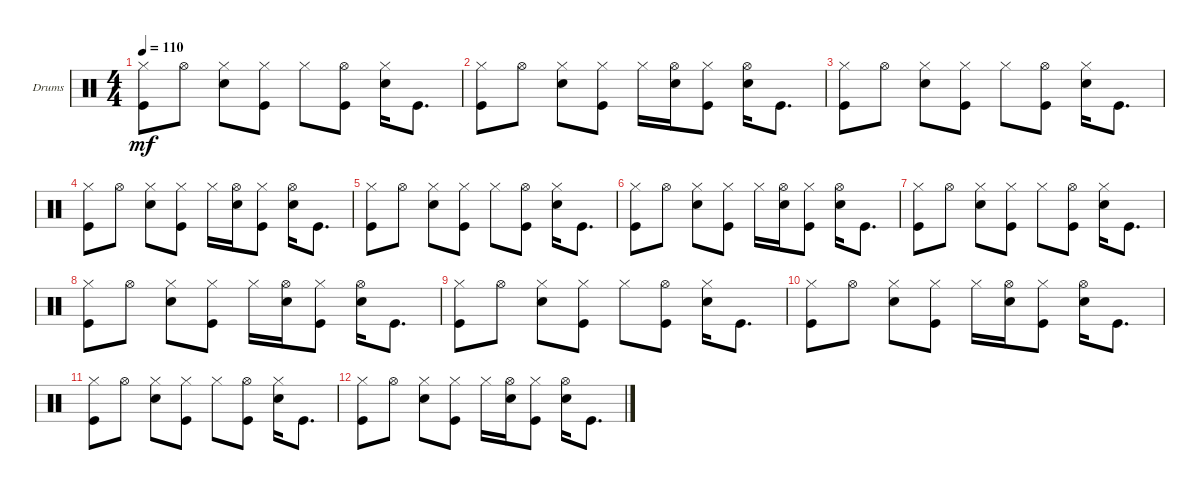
\defaultSystemsLayout 4
\bracketExtendMode groupsimilarinstruments
\firstSystemTrackNameOrientation horizontal
\otherSystemsTrackNameOrientation horizontal
\track ("Drumkit" "Drums") {instrument percussion}
\staff {score}
\articulation defaults
\ts (4 4)
\tempo 110
\clef neutral
\scale
0.643312
\ks c
("Kick (hit)" "Hi-Hat (closed)").8{dy mf} "Hi-Hat (open)".8 ("Hi-Hat (closed)" "Snare (hit) 2").8 ("Hi-Hat (closed)" "Kick (hit)").8 "Hi-Hat (closed)".8 ("Hi-Hat (open)" "Kick (hit)").8 ("Hi-Hat (closed)" "Snare (hit) 2").16 "Kick (hit)".8{d} |
\scale
0.356688 ("Kick (hit)" "Hi-Hat (closed)").8 "Hi-Hat (open)".8 ("Hi-Hat (closed)" "Snare (hit) 2").8 ("Hi-Hat (closed)" "Kick (hit)").8 "Hi-Hat (closed)".16 ("Hi-Hat (open)" "Snare (hit) 2").16 ("Hi-Hat (closed)" "Kick (hit)").8 ("Hi-Hat (open)" "Snare (hit) 2").16 "Kick (hit)".8{d} |
("Kick (hit)" "Hi-Hat (closed)").8 "Hi-Hat (open)".8 ("Hi-Hat (closed)" "Snare (hit) 2").8 ("Hi-Hat (closed)" "Kick (hit)").8 "Hi-Hat (closed)".8 ("Hi-Hat (open)" "Kick (hit)").8 ("Hi-Hat (closed)" "Snare (hit) 2").16 "Kick (hit)".8{d} |
("Kick (hit)" "Hi-Hat (closed)").8 "Hi-Hat (open)".8 ("Hi-Hat (closed)" "Snare (hit) 2").8 ("Hi-Hat (closed)" "Kick (hit)").8 "Hi-Hat (closed)".16 ("Hi-Hat (open)" "Snare (hit) 2").16 ("Hi-Hat (closed)" "Kick (hit)").8 ("Hi-Hat (open)" "Snare (hit) 2").16 "Kick (hit)".8{d} |
("Kick (hit)" "Hi-Hat (closed)").8 "Hi-Hat (open)".8 ("Hi-Hat (closed)" "Snare (hit) 2").8 ("Hi-Hat (closed)" "Kick (hit)").8 "Hi-Hat (closed)".8 ("Hi-Hat (open)" "Kick (hit)").8 ("Hi-Hat (closed)" "Snare (hit) 2").16 "Kick (hit)".8{d} |
("Kick (hit)" "Hi-Hat (closed)").8 "Hi-Hat (open)".8 ("Hi-Hat (closed)" "Snare (hit) 2").8 ("Hi-Hat (closed)" "Kick (hit)").8 "Hi-Hat (closed)".16 ("Hi-Hat (open)" "Snare (hit) 2").16 ("Hi-Hat (closed)" "Kick (hit)").8 ("Hi-Hat (open)" "Snare (hit) 2").16 "Kick (hit)".8{d} |
("Kick (hit)" "Hi-Hat (closed)").8 "Hi-Hat (open)".8 ("Hi-Hat (closed)" "Snare (hit) 2").8 ("Hi-Hat (closed)" "Kick (hit)").8 "Hi-Hat (closed)".8 ("Hi-Hat (open)" "Kick (hit)").8 ("Hi-Hat (closed)" "Snare (hit) 2").16 "Kick (hit)".8{d} |
("Kick (hit)" "Hi-Hat (closed)").8 "Hi-Hat (open)".8 ("Hi-Hat (closed)" "Snare (hit) 2").8 ("Hi-Hat (closed)" "Kick (hit)").8 "Hi-Hat (closed)".16 ("Hi-Hat (open)" "Snare (hit) 2").16 ("Hi-Hat (closed)" "Kick (hit)").8 ("Hi-Hat (open)" "Snare (hit) 2").16 "Kick (hit)".8{d} |
("Kick (hit)" "Hi-Hat (closed)").8 "Hi-Hat (open)".8 ("Hi-Hat (closed)" "Snare (hit) 2").8 ("Hi-Hat (closed)" "Kick (hit)").8 "Hi-Hat (closed)".8 ("Hi-Hat (open)" "Kick (hit)").8 ("Hi-Hat (closed)" "Snare (hit) 2").16 "Kick (hit)".8{d} |
("Kick (hit)" "Hi-Hat (closed)").8 "Hi-Hat (open)".8 ("Hi-Hat (closed)" "Snare (hit) 2").8 ("Hi-Hat (closed)" "Kick (hit)").8 "Hi-Hat (closed)".16 ("Hi-Hat (open)" "Snare (hit) 2").16 ("Hi-Hat (closed)" "Kick (hit)").8 ("Hi-Hat (open)" "Snare (hit) 2").16 "Kick (hit)".8{d} |
("Kick (hit)" "Hi-Hat (closed)").8 "Hi-Hat (open)".8 ("Hi-Hat (closed)" "Snare (hit) 2").8 ("Hi-Hat (closed)" "Kick (hit)").8 "Hi-Hat (closed)".8 ("Hi-Hat (open)" "Kick (hit)").8 ("Hi-Hat (closed)" "Snare (hit) 2").16 "Kick (hit)".8{d} |
("Kick (hit)" "Hi-Hat (closed)").8 "Hi-Hat (open)".8 ("Hi-Hat (closed)" "Snare (hit) 2").8 ("Hi-Hat (closed)" "Kick (hit)").8 "Hi-Hat (closed)".16 ("Hi-Hat (open)" "Snare (hit) 2").16 ("Hi-Hat (closed)" "Kick (hit)").8 ("Hi-Hat (open)" "Snare (hit) 2").16 "Kick (hit)".8{d}
